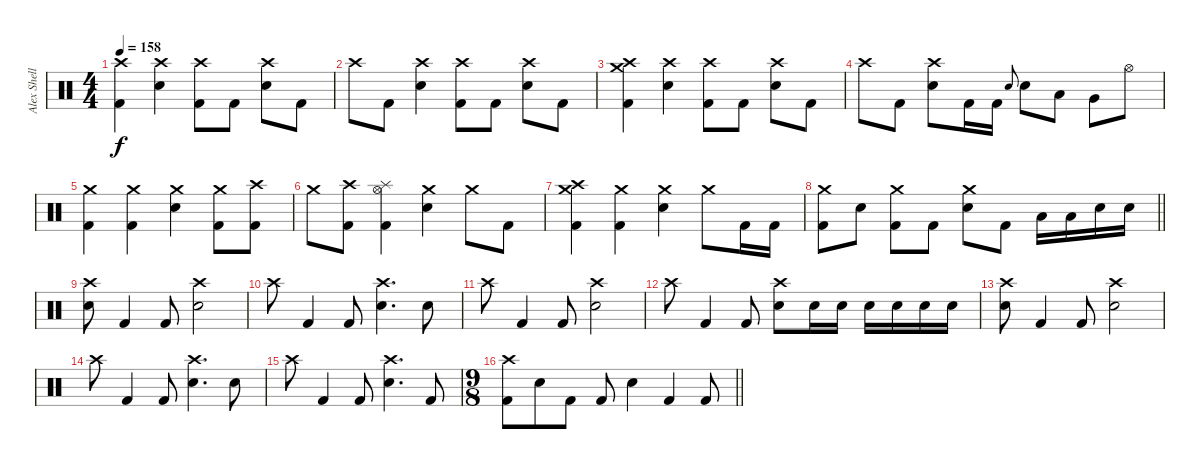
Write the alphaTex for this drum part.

\track ("Alex Shellnut" "Alex Shell") {instrument percussion}
\staff {score}
\articulation defaults
\ts (4 4)
\tempo 158
\clef neutral
\ks c
("Crash high (hit)" "Kick (hit) 2").4{dy f} ("Crash high (hit)" "Electric Snare (hit)").4 ("Crash high (hit)" "Kick (hit) 2").8 "Kick (hit) 2".8 ("Crash high (hit)" "Electric Snare (hit)").8 "Kick (hit) 2".8 |
"Crash high (hit)".8 "Kick (hit) 2".8 ("Crash high (hit)" "Electric Snare (hit)").4 ("Crash high (hit)" "Kick (hit) 2").8 "Kick (hit) 2".8 ("Crash high (hit)" "Electric Snare (hit)").8 "Kick (hit) 2".8 |
("Crash medium (hit)" "Crash high (hit)" "Kick (hit) 2").4 ("Crash high (hit)" "Electric Snare (hit)").4 ("Crash high (hit)" "Kick (hit) 2").8 "Kick (hit) 2".8 ("Crash high (hit)" "Electric Snare (hit)").8 "Kick (hit) 2".8 |
"Crash high (hit)".8 "Kick (hit) 2".8 ("Crash high (hit)" "Electric Snare (hit)").8 "Kick (hit) 2".16 "Kick (hit) 2".16 "Electric Snare (hit)".8{gr onbeat} "Electric Snare (hit)".8 "Low Tom (hit)".8 "Very Low Tom (hit)".8 "Hi-Hat (open)".8 |
("Crash medium (hit)" "Kick (hit) 2").4 ("Crash medium (hit)" "Kick (hit) 2").4 ("Crash medium (hit)" "Electric Snare (hit)").4 ("Crash medium (hit)" "Kick (hit) 2").8 ("Crash high (hit)" "Kick (hit) 2").8 |
"Crash medium (hit)".8 ("Crash high (hit)" "Kick (hit) 2").8 ("Splash (hit)" "Hi-Hat (open)" "Kick (hit) 2").4 ("Crash medium (hit)" "Electric Snare (hit)").4 "Crash medium (hit)".8 "Kick (hit) 2".8 |
("Crash medium (hit)" "Crash high (hit)" "Kick (hit) 2").4 ("Crash medium (hit)" "Kick (hit) 2").4 ("Crash medium (hit)" "Electric Snare (hit)").4 "Crash medium (hit)".8 "Kick (hit) 2".16 "Kick (hit) 2".16 |
\barLineRight lightlight
("Crash medium (hit)" "Kick (hit) 2").8 "Electric Snare (hit)".8 ("Crash medium (hit)" "Kick (hit) 2").8 "Kick (hit) 2".8 ("Crash medium (hit)" "Electric Snare (hit)").8 "Kick (hit) 2".8 "Low Tom (hit)".16 "Low Tom (hit)".16 "Electric Snare (hit)".16 "Electric Snare (hit)".16 |
("Crash high (hit)" "Electric Snare (hit)").8 "Kick (hit) 2".4 "Kick (hit) 2".8 ("Crash high (hit)" "Electric Snare (hit)").2 |
"Crash high (hit)".8 "Kick (hit) 2".4 "Kick (hit) 2".8 ("Crash high (hit)" "Electric Snare (hit)").4{d} "Electric Snare (hit)".8 |
"Crash high (hit)".8 "Kick (hit) 2".4 "Kick (hit) 2".8 ("Crash high (hit)" "Electric Snare (hit)").2 |
"Crash high (hit)".8 "Kick (hit) 2".4 "Kick (hit) 2".8 ("Crash high (hit)" "Electric Snare (hit)").8 "Snare (hit) 2".16 "Snare (hit) 2".16 "Snare (hit) 2".16 "Snare (hit) 2".16 "Snare (hit) 2".16 "Snare (hit) 2".16 |
("Crash high (hit)" "Electric Snare (hit)").8 "Kick (hit) 2".4 "Kick (hit) 2".8 ("Crash high (hit)" "Electric Snare (hit)").2 |
"Crash high (hit)".8 "Kick (hit) 2".4 "Kick (hit) 2".8 ("Crash high (hit)" "Electric Snare (hit)").4{d} "Electric Snare (hit)".8 |
"Crash high (hit)".8 "Kick (hit) 2".4 "Kick (hit) 2".8 ("Crash high (hit)" "Electric Snare (hit)").4{d} "Kick (hit) 2".8 |
\ts (9 8)
\barLineRight lightlight
("Crash high (hit)" "Kick (hit) 2").8 "Electric Snare (hit)".8 "Kick (hit) 2".8 "Kick (hit) 2".8 "Electric Snare (hit)".4 "Kick (hit) 2".4 "Kick (hit) 2".8
